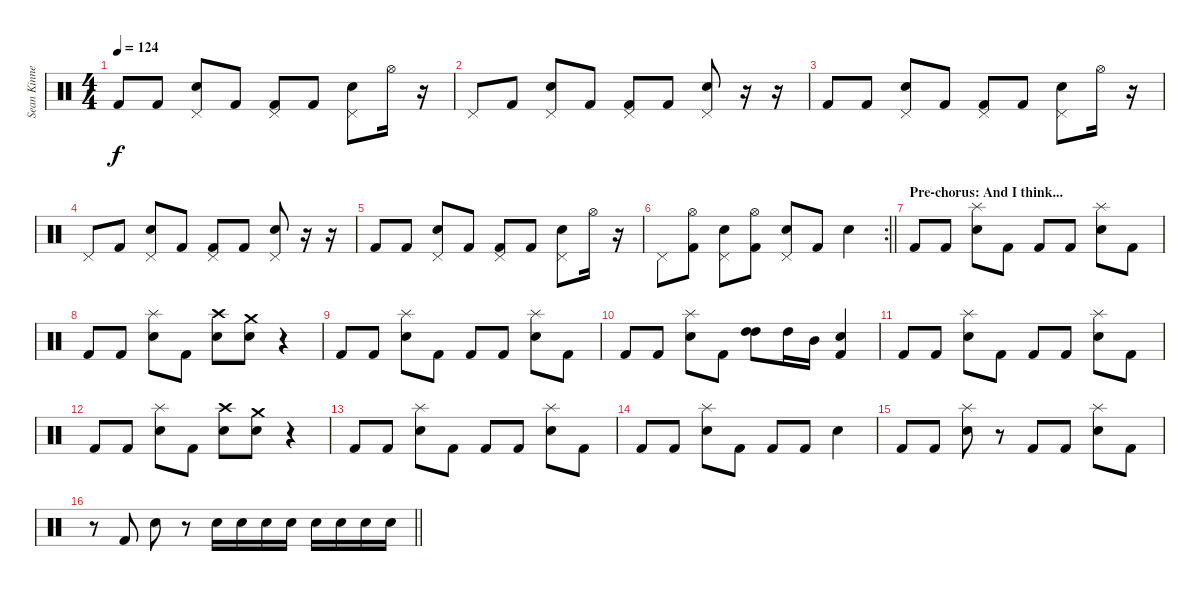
\track ("Sean Kinney" "Sean Kinne") {instrument percussion}
\staff {score}
\articulation defaults
\ts (4 4)
\tempo 124
\clef neutral
\ks c "Kick (hit) 2".8{dy f} "Kick (hit) 2".8
("Pedal Hi-Hat (hit)" "Snare (hit) 2").8 "Kick (hit) 2".8 ("Pedal Hi-Hat (hit)" "Kick (hit) 2").8 "Kick (hit) 2".8 ("Pedal Hi-Hat (hit)" "Snare (hit) 2").8 "Hi-Hat (open)".16 r.16 |
"Pedal Hi-Hat (hit)".8 "Kick (hit) 2".8 ("Pedal Hi-Hat (hit)" "Snare (hit) 2").8 "Kick (hit) 2".8 ("Pedal Hi-Hat (hit)" "Kick (hit) 2").8 "Kick (hit) 2".8 ("Pedal Hi-Hat (hit)" "Snare (hit) 2").8 r.16 r.16 |
"Kick (hit) 2".8 "Kick (hit) 2".8 ("Pedal Hi-Hat (hit)" "Snare (hit) 2").8 "Kick (hit) 2".8 ("Pedal Hi-Hat (hit)" "Kick (hit) 2").8 "Kick (hit) 2".8 ("Pedal Hi-Hat (hit)" "Snare (hit) 2").8 "Hi-Hat (open)".16 r.16 |
"Pedal Hi-Hat (hit)".8 "Kick (hit) 2".8 ("Pedal Hi-Hat (hit)" "Snare (hit) 2").8 "Kick (hit) 2".8 ("Pedal Hi-Hat (hit)" "Kick (hit) 2").8 "Kick (hit) 2".8 ("Pedal Hi-Hat (hit)" "Snare (hit) 2").8 r.16 r.16 |
"Kick (hit) 2".8 "Kick (hit) 2".8 ("Pedal Hi-Hat (hit)" "Snare (hit) 2").8 "Kick (hit) 2".8 ("Pedal Hi-Hat (hit)" "Kick (hit) 2").8 "Kick (hit) 2".8 ("Pedal Hi-Hat (hit)" "Snare (hit) 2").8 "Hi-Hat (open)".16 r.16 |
\rc 2
\barLineRight lightlight "Pedal Hi-Hat (hit)".8
("Hi-Hat (open)" "Kick (hit) 2").8 ("Pedal Hi-Hat (hit)" "Snare (hit) 2").8 ("Hi-Hat (open)" "Kick (hit) 2").8 ("Pedal Hi-Hat (hit)" "Snare (hit) 2").8 "Kick (hit) 2".8 "Snare (hit) 2".4 |
\section ("" "Pre-chorus: And I think...")
"Kick (hit) 2".8 "Kick (hit) 2".8 ("Splash (hit)" "Snare (hit) 2").8 "Kick (hit) 2".8 "Kick (hit) 2".8 "Kick (hit) 2".8 ("Splash (hit)" "Snare (hit) 2").8 "Kick (hit) 2".8 |
"Kick (hit) 2".8 "Kick (hit) 2".8 ("Splash (hit)" "Snare (hit) 2").8 "Kick (hit) 2".8 ("Crash high (hit)" "Snare (hit) 2").8 ("Crash medium (hit)" "Snare (hit) 2").8 r.4 |
"Kick (hit) 2".8 "Kick (hit) 2".8 ("Splash (hit)" "Snare (hit) 2").8 "Kick (hit) 2".8 "Kick (hit) 2".8 "Kick (hit) 2".8 ("Splash (hit)" "Snare (hit) 2").8 "Kick (hit) 2".8 |
"Kick (hit) 2".8 "Kick (hit) 2".8 ("Splash (hit)" "Snare (hit) 2").8 "Kick (hit) 2".8 ("High Tom (hit)" "High Tom (hit)").8 "High Tom (hit)".16 "Mid Tom (hit)".16 ("Snare (hit) 2" "Kick (hit) 2").4 |
"Kick (hit) 2".8 "Kick (hit) 2".8 ("Splash (hit)" "Snare (hit) 2").8 "Kick (hit) 2".8 "Kick (hit) 2".8 "Kick (hit) 2".8 ("Splash (hit)" "Snare (hit) 2").8 "Kick (hit) 2".8 |
"Kick (hit) 2".8 "Kick (hit) 2".8 ("Splash (hit)" "Snare (hit) 2").8 "Kick (hit) 2".8 ("Crash high (hit)" "Snare (hit) 2").8 ("Crash medium (hit)" "Snare (hit) 2").8 r.4 |
"Kick (hit) 2".8 "Kick (hit) 2".8 ("Splash (hit)" "Snare (hit) 2").8 "Kick (hit) 2".8 "Kick (hit) 2".8 "Kick (hit) 2".8 ("Splash (hit)" "Snare (hit) 2").8 "Kick (hit) 2".8 |
"Kick (hit) 2".8 "Kick (hit) 2".8 ("Splash (hit)" "Snare (hit) 2").8 "Kick (hit) 2".8 "Kick (hit) 2".8 "Kick (hit) 2".8 "Snare (hit) 2".4 |
"Kick (hit) 2".8 "Kick (hit) 2".8 ("Splash (hit)" "Snare (hit) 2").8 r.8 "Kick (hit) 2".8 "Kick (hit) 2".8 ("Splash (hit)" "Snare (hit) 2").8 "Kick (hit) 2".8 |
\barLineRight lightlight
r.8 "Kick (hit) 2".8 "Snare (hit) 2".8 r.8 "Snare (hit) 2".16 "Snare (hit) 2".16 "Snare (hit) 2".16 "Snare (hit) 2".16 "Snare (hit) 2".16 "Snare (hit) 2".16 "Snare (hit) 2".16 "Snare (hit) 2".16
